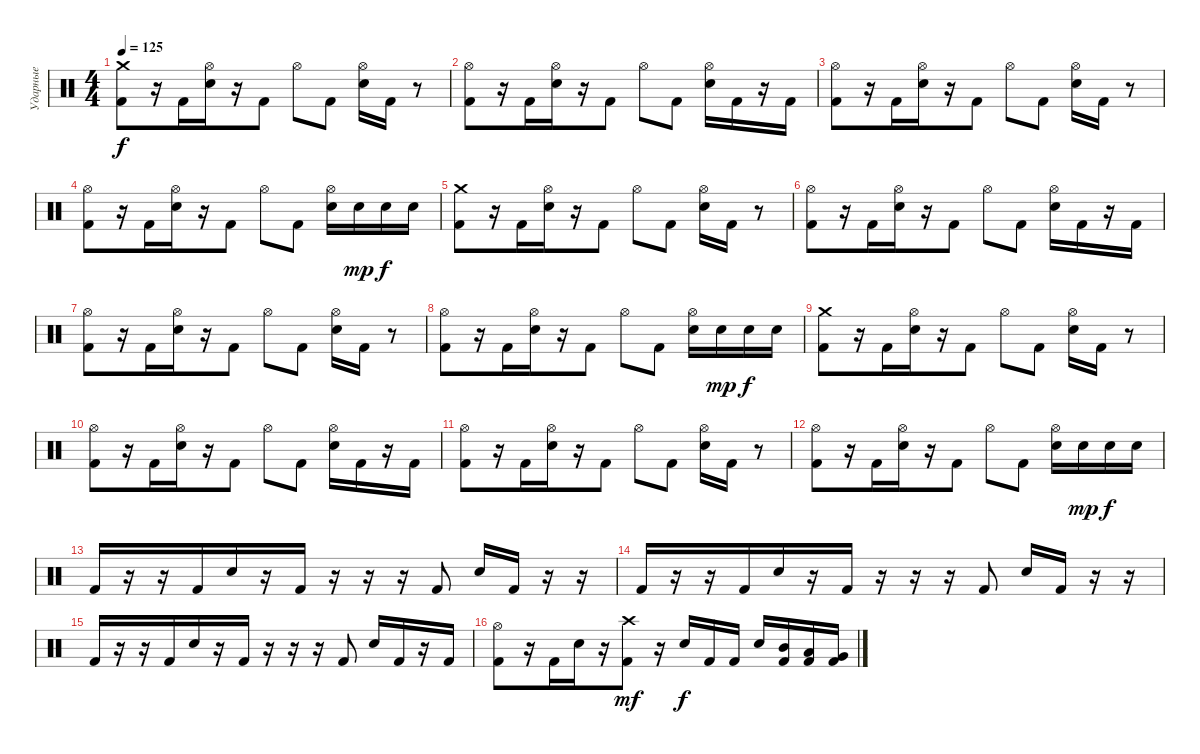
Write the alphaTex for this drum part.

\track ("Ударные" "Ударные") {instrument percussion}
\staff {score}
\articulation defaults
\ts (4 4)
\tempo 125
\clef neutral
\ks c
("Crash medium (hit)" "Kick (hit) 2").8{dy f} r.16 "Kick (hit) 2".16{beam merge} ("Hi-Hat (open)" "Electric Snare (hit)").16 r.16 "Kick (hit) 2".8 "Hi-Hat (open)".8 "Kick (hit) 2".8 ("Hi-Hat (open)" "Electric Snare (hit)").16 "Kick (hit) 2".16 r.8 |
("Hi-Hat (open)" "Kick (hit) 2").8 r.16 "Kick (hit) 2".16{beam merge} ("Hi-Hat (open)" "Electric Snare (hit)").16 r.16 "Kick (hit) 2".8 "Hi-Hat (open)".8 "Kick (hit) 2".8 ("Hi-Hat (open)" "Electric Snare (hit)").16 "Kick (hit) 2".16 r.16 "Kick (hit) 2".16 |
("Hi-Hat (open)" "Kick (hit) 2").8 r.16 "Kick (hit) 2".16{beam merge} ("Hi-Hat (open)" "Electric Snare (hit)").16 r.16 "Kick (hit) 2".8 "Hi-Hat (open)".8 "Kick (hit) 2".8 ("Hi-Hat (open)" "Electric Snare (hit)").16 "Kick (hit) 2".16 r.8 |
("Hi-Hat (open)" "Kick (hit) 2").8 r.16 "Kick (hit) 2".16{beam merge} ("Hi-Hat (open)" "Electric Snare (hit)").16 r.16 "Kick (hit) 2".8 "Hi-Hat (open)".8 "Kick (hit) 2".8 ("Hi-Hat (open)" "Electric Snare (hit)").16 "Electric Snare (hit)".16{dy mp} "Electric Snare (hit)".16{dy f} "Electric Snare (hit)".16 |
("Crash medium (hit)" "Kick (hit) 2").8 r.16 "Kick (hit) 2".16{beam merge} ("Hi-Hat (open)" "Electric Snare (hit)").16 r.16 "Kick (hit) 2".8 "Hi-Hat (open)".8 "Kick (hit) 2".8 ("Hi-Hat (open)" "Electric Snare (hit)").16 "Kick (hit) 2".16 r.8 |
("Hi-Hat (open)" "Kick (hit) 2").8 r.16 "Kick (hit) 2".16{beam merge} ("Hi-Hat (open)" "Electric Snare (hit)").16 r.16 "Kick (hit) 2".8 "Hi-Hat (open)".8 "Kick (hit) 2".8 ("Hi-Hat (open)" "Electric Snare (hit)").16 "Kick (hit) 2".16 r.16 "Kick (hit) 2".16 |
("Hi-Hat (open)" "Kick (hit) 2").8 r.16 "Kick (hit) 2".16{beam merge} ("Hi-Hat (open)" "Electric Snare (hit)").16 r.16 "Kick (hit) 2".8 "Hi-Hat (open)".8 "Kick (hit) 2".8 ("Hi-Hat (open)" "Electric Snare (hit)").16 "Kick (hit) 2".16 r.8 |
("Hi-Hat (open)" "Kick (hit) 2").8 r.16 "Kick (hit) 2".16{beam merge} ("Hi-Hat (open)" "Electric Snare (hit)").16 r.16 "Kick (hit) 2".8 "Hi-Hat (open)".8 "Kick (hit) 2".8 ("Hi-Hat (open)" "Electric Snare (hit)").16 "Electric Snare (hit)".16{dy mp} "Electric Snare (hit)".16{dy f} "Electric Snare (hit)".16 |
("Crash medium (hit)" "Kick (hit) 2").8 r.16 "Kick (hit) 2".16{beam merge} ("Hi-Hat (open)" "Electric Snare (hit)").16 r.16 "Kick (hit) 2".8 "Hi-Hat (open)".8 "Kick (hit) 2".8 ("Hi-Hat (open)" "Electric Snare (hit)").16 "Kick (hit) 2".16 r.8 |
("Hi-Hat (open)" "Kick (hit) 2").8 r.16 "Kick (hit) 2".16{beam merge} ("Hi-Hat (open)" "Electric Snare (hit)").16 r.16 "Kick (hit) 2".8 "Hi-Hat (open)".8 "Kick (hit) 2".8 ("Hi-Hat (open)" "Electric Snare (hit)").16 "Kick (hit) 2".16 r.16 "Kick (hit) 2".16 |
("Hi-Hat (open)" "Kick (hit) 2").8 r.16 "Kick (hit) 2".16{beam merge} ("Hi-Hat (open)" "Electric Snare (hit)").16 r.16 "Kick (hit) 2".8 "Hi-Hat (open)".8 "Kick (hit) 2".8 ("Hi-Hat (open)" "Electric Snare (hit)").16 "Kick (hit) 2".16 r.8 |
("Hi-Hat (open)" "Kick (hit) 2").8 r.16 "Kick (hit) 2".16{beam merge} ("Hi-Hat (open)" "Electric Snare (hit)").16 r.16 "Kick (hit) 2".8 "Hi-Hat (open)".8 "Kick (hit) 2".8 ("Hi-Hat (open)" "Electric Snare (hit)").16 "Electric Snare (hit)".16{dy mp} "Electric Snare (hit)".16{dy f} "Electric Snare (hit)".16 |
"Kick (hit) 2".16 r.16 r.16 "Kick (hit) 2".16{beam merge} "Electric Snare (hit)".16 r.16 "Kick (hit) 2".16 r.16 r.16 r.16 "Kick (hit) 2".8 "Electric Snare (hit)".16 "Kick (hit) 2".16 r.16 r.16 |
"Kick (hit) 2".16 r.16 r.16 "Kick (hit) 2".16{beam merge} "Electric Snare (hit)".16 r.16 "Kick (hit) 2".16 r.16 r.16 r.16 "Kick (hit) 2".8 "Electric Snare (hit)".16 "Kick (hit) 2".16 r.16 r.16 |
"Kick (hit) 2".16 r.16 r.16 "Kick (hit) 2".16{beam merge} "Electric Snare (hit)".16 r.16 "Kick (hit) 2".16 r.16 r.16 r.16 "Kick (hit) 2".8 "Electric Snare (hit)".16 "Kick (hit) 2".16 r.16 "Kick (hit) 2".16 |
("Hi-Hat (open)" "Kick (hit) 2").8 r.16 "Kick (hit) 2".16{beam merge} "Electric Snare (hit)".16 r.16 ("Crash high (hit)" "Kick (hit) 2").8{dy mf} r.16 "Electric Snare (hit)".16{dy f} "Kick (hit) 2".16 "Kick (hit) 2".16 "Electric Snare (hit)".16 ("Mid Tom (hit)" "Kick (hit) 2").16 ("Low Tom (hit)" "Kick (hit) 2").16 ("Very Low Tom (hit)" "Kick (hit) 2").16
